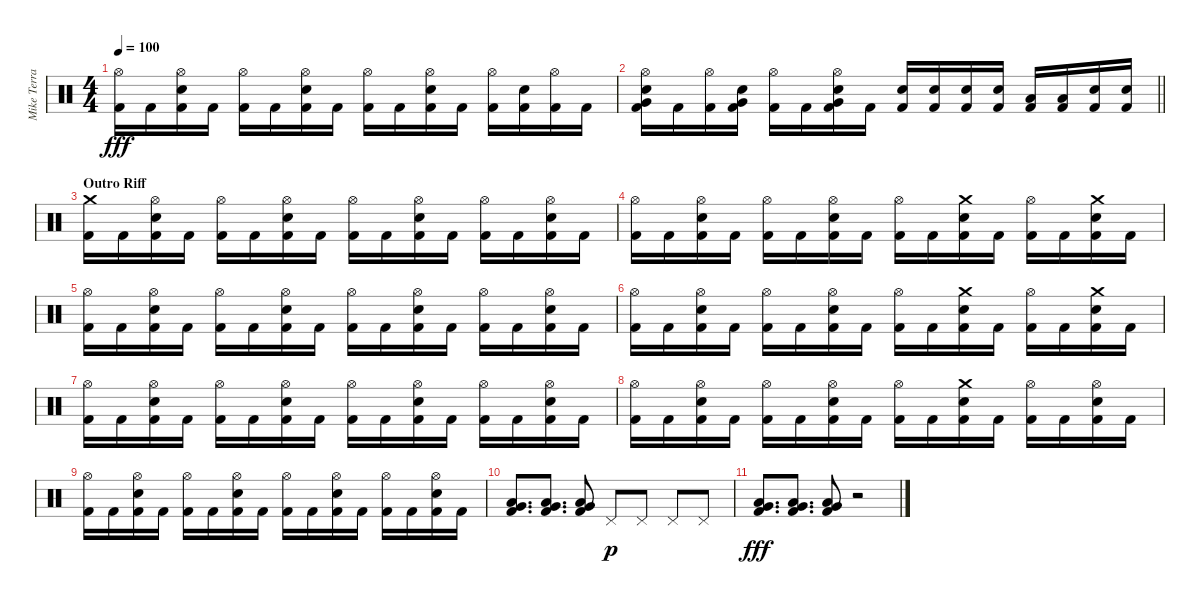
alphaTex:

\track ("Mike Terrana" "Mike Terra") {instrument percussion}
\staff {score}
\articulation defaults
\ts (4 4)
\tempo 100
\clef neutral
\ks c
("Hi-Hat (open)" "Kick (hit) 2").16{dy fff} "Kick (hit) 2".16 ("Hi-Hat (open)" "Snare (hit) 2" "Kick (hit) 2").16 "Kick (hit) 2".16 ("Hi-Hat (open)" "Kick (hit) 2").16 "Kick (hit) 2".16 ("Hi-Hat (open)" "Snare (hit) 2" "Kick (hit) 2").16 "Kick (hit) 2".16 ("Hi-Hat (open)" "Kick (hit) 2").16 "Kick (hit) 2".16 ("Hi-Hat (open)" "Snare (hit) 2" "Kick (hit) 2").16 "Kick (hit) 2".16 ("Hi-Hat (open)" "Kick (hit) 2").16 ("Snare (hit) 2" "Kick (hit) 2").16 ("Hi-Hat (open)" "Kick (hit) 2").16 "Kick (hit) 2".16 |
\barLineRight lightlight
("Hi-Hat (open)" "Snare (hit) 2" "Very Low Tom (hit)" "Kick (hit) 2").16 "Kick (hit) 2".16 ("Hi-Hat (open)" "Kick (hit) 2").16 ("Snare (hit) 2" "Very Low Tom (hit)" "Kick (hit) 2").16 ("Hi-Hat (open)" "Kick (hit) 2").16 "Kick (hit) 2".16 ("Hi-Hat (open)" "Snare (hit) 2" "Very Low Tom (hit)" "Kick (hit) 2").16 "Kick (hit) 2".16 ("Snare (hit) 2" "Kick (hit) 2").16 ("Snare (hit) 2" "Kick (hit) 2").16 ("Snare (hit) 2" "Kick (hit) 2").16 ("Snare (hit) 2" "Kick (hit) 2").16 ("Low Tom (hit)" "Kick (hit) 2").16 ("Low Tom (hit)" "Kick (hit) 2").16 ("Snare (hit) 2" "Kick (hit) 2").16 ("Snare (hit) 2" "Kick (hit) 2").16 |
\section ("" "Outro Riff")
("Crash medium (hit)" "Kick (hit) 2").16 "Kick (hit) 2".16 ("Hi-Hat (open)" "Snare (hit) 2" "Kick (hit) 2").16 "Kick (hit) 2".16 ("Hi-Hat (open)" "Kick (hit) 2").16 "Kick (hit) 2".16 ("Hi-Hat (open)" "Snare (hit) 2" "Kick (hit) 2").16 "Kick (hit) 2".16 ("Hi-Hat (open)" "Kick (hit) 2").16 "Kick (hit) 2".16 ("Hi-Hat (open)" "Snare (hit) 2" "Kick (hit) 2").16 "Kick (hit) 2".16 ("Hi-Hat (open)" "Kick (hit) 2").16 "Kick (hit) 2".16 ("Hi-Hat (open)" "Snare (hit) 2" "Kick (hit) 2").16 "Kick (hit) 2".16 |
("Hi-Hat (open)" "Kick (hit) 2").16 "Kick (hit) 2".16 ("Hi-Hat (open)" "Snare (hit) 2" "Kick (hit) 2").16 "Kick (hit) 2".16 ("Hi-Hat (open)" "Kick (hit) 2").16 "Kick (hit) 2".16 ("Hi-Hat (open)" "Snare (hit) 2" "Kick (hit) 2").16 "Kick (hit) 2".16 ("Hi-Hat (open)" "Kick (hit) 2").16 "Kick (hit) 2".16 ("Crash medium (hit)" "Snare (hit) 2" "Kick (hit) 2").16 "Kick (hit) 2".16 ("Hi-Hat (open)" "Kick (hit) 2").16 "Kick (hit) 2".16 ("Crash medium (hit)" "Snare (hit) 2" "Kick (hit) 2").16 "Kick (hit) 2".16 |
("Hi-Hat (open)" "Kick (hit) 2").16 "Kick (hit) 2".16 ("Hi-Hat (open)" "Snare (hit) 2" "Kick (hit) 2").16 "Kick (hit) 2".16 ("Hi-Hat (open)" "Kick (hit) 2").16 "Kick (hit) 2".16 ("Hi-Hat (open)" "Snare (hit) 2" "Kick (hit) 2").16 "Kick (hit) 2".16 ("Hi-Hat (open)" "Kick (hit) 2").16 "Kick (hit) 2".16 ("Hi-Hat (open)" "Snare (hit) 2" "Kick (hit) 2").16 "Kick (hit) 2".16 ("Hi-Hat (open)" "Kick (hit) 2").16 "Kick (hit) 2".16 ("Hi-Hat (open)" "Snare (hit) 2" "Kick (hit) 2").16 "Kick (hit) 2".16 |
("Hi-Hat (open)" "Kick (hit) 2").16 "Kick (hit) 2".16 ("Hi-Hat (open)" "Snare (hit) 2" "Kick (hit) 2").16 "Kick (hit) 2".16 ("Hi-Hat (open)" "Kick (hit) 2").16 "Kick (hit) 2".16 ("Hi-Hat (open)" "Snare (hit) 2" "Kick (hit) 2").16 "Kick (hit) 2".16 ("Hi-Hat (open)" "Kick (hit) 2").16 "Kick (hit) 2".16 ("Crash medium (hit)" "Snare (hit) 2" "Kick (hit) 2").16 "Kick (hit) 2".16 ("Hi-Hat (open)" "Kick (hit) 2").16 "Kick (hit) 2".16 ("Crash medium (hit)" "Snare (hit) 2" "Kick (hit) 2").16 "Kick (hit) 2".16 |
("Hi-Hat (open)" "Kick (hit) 2").16 "Kick (hit) 2".16 ("Hi-Hat (open)" "Snare (hit) 2" "Kick (hit) 2").16 "Kick (hit) 2".16 ("Hi-Hat (open)" "Kick (hit) 2").16 "Kick (hit) 2".16 ("Hi-Hat (open)" "Snare (hit) 2" "Kick (hit) 2").16 "Kick (hit) 2".16 ("Hi-Hat (open)" "Kick (hit) 2").16 "Kick (hit) 2".16 ("Hi-Hat (open)" "Snare (hit) 2" "Kick (hit) 2").16 "Kick (hit) 2".16 ("Hi-Hat (open)" "Kick (hit) 2").16 "Kick (hit) 2".16 ("Hi-Hat (open)" "Snare (hit) 2" "Kick (hit) 2").16 "Kick (hit) 2".16 |
("Hi-Hat (open)" "Kick (hit) 2").16 "Kick (hit) 2".16 ("Hi-Hat (open)" "Snare (hit) 2" "Kick (hit) 2").16 "Kick (hit) 2".16 ("Hi-Hat (open)" "Kick (hit) 2").16 "Kick (hit) 2".16 ("Hi-Hat (open)" "Snare (hit) 2" "Kick (hit) 2").16 "Kick (hit) 2".16 ("Hi-Hat (open)" "Kick (hit) 2").16 "Kick (hit) 2".16 ("Crash medium (hit)" "Snare (hit) 2" "Kick (hit) 2").16 "Kick (hit) 2".16 ("Hi-Hat (open)" "Kick (hit) 2").16 "Kick (hit) 2".16 ("Hi-Hat (open)" "Snare (hit) 2" "Kick (hit) 2").16 "Kick (hit) 2".16 |
("Hi-Hat (open)" "Kick (hit) 2").16 "Kick (hit) 2".16 ("Hi-Hat (open)" "Snare (hit) 2" "Kick (hit) 2").16 "Kick (hit) 2".16 ("Hi-Hat (open)" "Kick (hit) 2").16 "Kick (hit) 2".16 ("Hi-Hat (open)" "Snare (hit) 2" "Kick (hit) 2").16 "Kick (hit) 2".16 ("Hi-Hat (open)" "Kick (hit) 2").16 "Kick (hit) 2".16 ("Hi-Hat (open)" "Snare (hit) 2" "Kick (hit) 2").16 "Kick (hit) 2".16 ("Hi-Hat (open)" "Kick (hit) 2").16 "Kick (hit) 2".16 ("Hi-Hat (open)" "Snare (hit) 2" "Kick (hit) 2").16 "Kick (hit) 2".16 |
("Low Tom (hit)" "Very Low Tom (hit)" "Kick (hit) 2").8{d} ("Low Tom (hit)" "Very Low Tom (hit)" "Kick (hit) 2").8{d} ("Low Tom (hit)" "Very Low Tom (hit)" "Kick (hit) 2").8 "Pedal Hi-Hat (hit)".8{dy p} "Pedal Hi-Hat (hit)".8 "Pedal Hi-Hat (hit)".8 "Pedal Hi-Hat (hit)".8 |
("Low Tom (hit)" "Very Low Tom (hit)" "Kick (hit) 2").8{d dy fff} ("Low Tom (hit)" "Very Low Tom (hit)" "Kick (hit) 2").8{d} ("Low Tom (hit)" "Very Low Tom (hit)" "Kick (hit) 2").8 r.2
